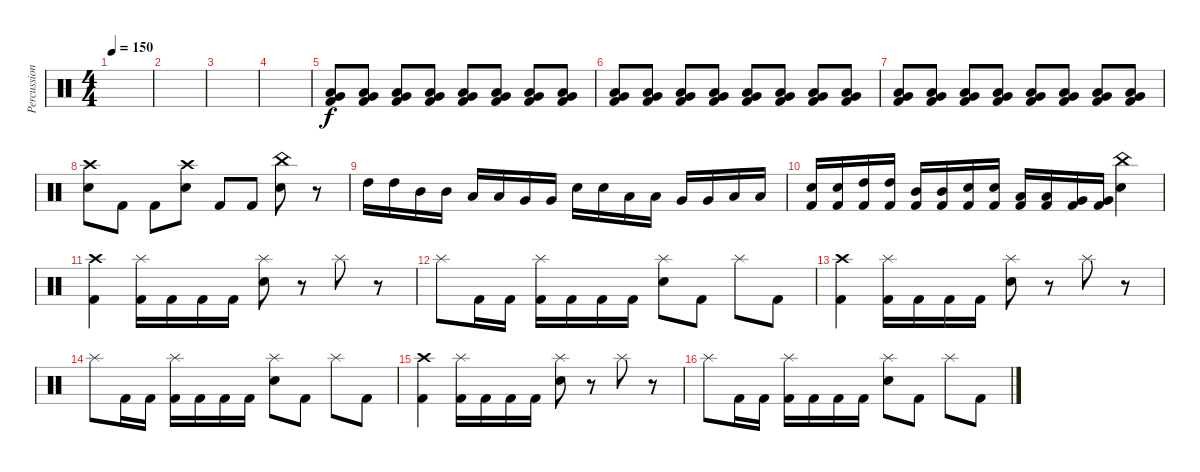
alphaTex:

\track ("Percussion" "Percussion") {instrument percussion}
\staff {score}
\articulation defaults
\ts (4 4)
\tempo 150
\clef neutral
\ks c
|
|
|
|
("Very Low Tom (hit)" "Low Floor Tom (hit)" "Kick (hit) 2").8{volume 1} ("Very Low Tom (hit)" "Low Floor Tom (hit)" "Kick (hit) 2").8{volume 2} ("Very Low Tom (hit)" "Low Floor Tom (hit)" "Kick (hit) 2").8{volume 2} ("Very Low Tom (hit)" "Low Floor Tom (hit)" "Kick (hit) 2").8 ("Very Low Tom (hit)" "Low Floor Tom (hit)" "Kick (hit) 2").8{volume 4} ("Very Low Tom (hit)" "Low Floor Tom (hit)" "Kick (hit) 2").8{volume 5} ("Very Low Tom (hit)" "Low Floor Tom (hit)" "Kick (hit) 2").8{volume 6} ("Very Low Tom (hit)" "Low Floor Tom (hit)" "Kick (hit) 2").8{volume 7} |
("Very Low Tom (hit)" "Low Floor Tom (hit)" "Kick (hit) 2").8{volume 8} ("Very Low Tom (hit)" "Low Floor Tom (hit)" "Kick (hit) 2").8{volume 9} ("Very Low Tom (hit)" "Low Floor Tom (hit)" "Kick (hit) 2").8{volume 10} ("Very Low Tom (hit)" "Low Floor Tom (hit)" "Kick (hit) 2").8 ("Very Low Tom (hit)" "Low Floor Tom (hit)" "Kick (hit) 2").8 ("Very Low Tom (hit)" "Low Floor Tom (hit)" "Kick (hit) 2").8 ("Very Low Tom (hit)" "Low Floor Tom (hit)" "Kick (hit) 2").8 ("Very Low Tom (hit)" "Low Floor Tom (hit)" "Kick (hit) 2").8 |
("Very Low Tom (hit)" "Low Floor Tom (hit)" "Kick (hit) 2").8{volume 11} ("Very Low Tom (hit)" "Low Floor Tom (hit)" "Kick (hit) 2").8{volume 12} ("Very Low Tom (hit)" "Low Floor Tom (hit)" "Kick (hit) 2").8{volume 13} ("Very Low Tom (hit)" "Low Floor Tom (hit)" "Kick (hit) 2").8{volume 14} ("Very Low Tom (hit)" "Low Floor Tom (hit)" "Kick (hit) 2").8{volume 15} ("Very Low Tom (hit)" "Low Floor Tom (hit)" "Kick (hit) 2").8{volume 16} ("Very Low Tom (hit)" "Low Floor Tom (hit)" "Kick (hit) 2").8 ("Very Low Tom (hit)" "Low Floor Tom (hit)" "Kick (hit) 2").8 |
("Crash high (hit)" "Electric Snare (hit)").8 "Kick (hit) 2".8 "Kick (hit) 2".8 ("Crash high (hit)" "Electric Snare (hit)").8 "Kick (hit) 2".8 "Kick (hit) 2".8 ("China (hit)" "Electric Snare (hit)").8 r.8 |
"High Tom (hit)".16 "High Tom (hit)".16 "Mid Tom (hit)".16 "Mid Tom (hit)".16 "Low Tom (hit)".16 "Low Tom (hit)".16 "Very Low Tom (hit)".16 "Very Low Tom (hit)".16 "Electric Snare (hit)".16 "Electric Snare (hit)".16 "Low Tom (hit)".16 "Low Tom (hit)".16 "Very Low Tom (hit)".16 "Very Low Tom (hit)".16 "Low Floor Tom (hit)".16 "Low Floor Tom (hit)".16 |
("Electric Snare (hit)" "Kick (hit) 2").16 ("Electric Snare (hit)" "Kick (hit) 2").16 ("High Tom (hit)" "Kick (hit) 2").16 ("High Tom (hit)" "Kick (hit) 2").16 ("Mid Tom (hit)" "Kick (hit) 2").16 ("Mid Tom (hit)" "Kick (hit) 2").16 ("Electric Snare (hit)" "Kick (hit) 2").16 ("Electric Snare (hit)" "Kick (hit) 2").16 ("Low Tom (hit)" "Kick (hit) 2").16 ("Low Tom (hit)" "Kick (hit) 2").16 ("Very Low Tom (hit)" "Kick (hit) 2").16 ("Very Low Tom (hit)" "Kick (hit) 2").16 ("China (hit)" "Electric Snare (hit)").4 |
("Crash high (hit)" "Kick (hit) 2").4 ("Splash (hit)" "Kick (hit) 2").16 "Kick (hit) 2".16 "Kick (hit) 2".16 "Kick (hit) 2".16 ("Splash (hit)" "Electric Snare (hit)").8 r.8 "Splash (hit)".8 r.8 |
"Splash (hit)".8 "Kick (hit) 2".16 "Kick (hit) 2".16 ("Splash (hit)" "Kick (hit) 2").16 "Kick (hit) 2".16 "Kick (hit) 2".16 "Kick (hit) 2".16 ("Splash (hit)" "Electric Snare (hit)").8 "Kick (hit) 2".8 "Splash (hit)".8 "Kick (hit) 2".8 |
("Crash high (hit)" "Kick (hit) 2").4 ("Splash (hit)" "Kick (hit) 2").16 "Kick (hit) 2".16 "Kick (hit) 2".16 "Kick (hit) 2".16 ("Splash (hit)" "Electric Snare (hit)").8 r.8 "Splash (hit)".8 r.8 |
"Splash (hit)".8 "Kick (hit) 2".16 "Kick (hit) 2".16 ("Splash (hit)" "Kick (hit) 2").16 "Kick (hit) 2".16 "Kick (hit) 2".16 "Kick (hit) 2".16 ("Splash (hit)" "Electric Snare (hit)").8 "Kick (hit) 2".8 "Splash (hit)".8 "Kick (hit) 2".8 |
("Crash high (hit)" "Kick (hit) 2").4 ("Splash (hit)" "Kick (hit) 2").16 "Kick (hit) 2".16 "Kick (hit) 2".16 "Kick (hit) 2".16 ("Splash (hit)" "Electric Snare (hit)").8 r.8 "Splash (hit)".8 r.8 |
"Splash (hit)".8 "Kick (hit) 2".16 "Kick (hit) 2".16 ("Splash (hit)" "Kick (hit) 2").16 "Kick (hit) 2".16 "Kick (hit) 2".16 "Kick (hit) 2".16 ("Splash (hit)" "Electric Snare (hit)").8 "Kick (hit) 2".8 "Splash (hit)".8 "Kick (hit) 2".8
